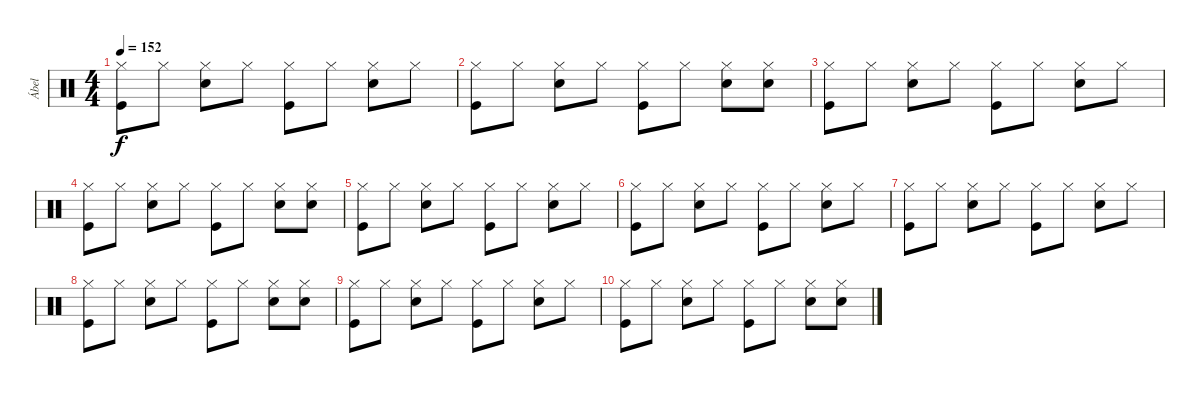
\track ("Ábel" "Ábel") {instrument percussion}
\staff {score}
\articulation defaults
\ts (4 4)
\tempo 152
\clef neutral
\ks c
("Hi-Hat (closed)" "Kick (hit)").8{dy f} "Hi-Hat (closed)".8 ("Hi-Hat (closed)" "Snare (hit) 2").8 "Hi-Hat (closed)".8 ("Hi-Hat (closed)" "Kick (hit)").8 "Hi-Hat (closed)".8 ("Hi-Hat (closed)" "Snare (hit) 2").8 "Hi-Hat (closed)".8 |
("Hi-Hat (closed)" "Kick (hit)").8 "Hi-Hat (closed)".8 ("Hi-Hat (closed)" "Snare (hit) 2").8 "Hi-Hat (closed)".8 ("Hi-Hat (closed)" "Kick (hit)").8 "Hi-Hat (closed)".8 ("Hi-Hat (closed)" "Snare (hit) 2").8 ("Hi-Hat (closed)" "Snare (hit) 2").8 |
("Hi-Hat (closed)" "Kick (hit)").8 "Hi-Hat (closed)".8 ("Hi-Hat (closed)" "Snare (hit) 2").8 "Hi-Hat (closed)".8 ("Hi-Hat (closed)" "Kick (hit)").8 "Hi-Hat (closed)".8 ("Hi-Hat (closed)" "Snare (hit) 2").8 "Hi-Hat (closed)".8 |
("Hi-Hat (closed)" "Kick (hit)").8 "Hi-Hat (closed)".8 ("Hi-Hat (closed)" "Snare (hit) 2").8 "Hi-Hat (closed)".8 ("Hi-Hat (closed)" "Kick (hit)").8 "Hi-Hat (closed)".8 ("Hi-Hat (closed)" "Snare (hit) 2").8 ("Hi-Hat (closed)" "Snare (hit) 2").8 |
("Hi-Hat (closed)" "Kick (hit)").8 "Hi-Hat (closed)".8 ("Hi-Hat (closed)" "Snare (hit) 2").8 "Hi-Hat (closed)".8 ("Hi-Hat (closed)" "Kick (hit)").8 "Hi-Hat (closed)".8 ("Hi-Hat (closed)" "Snare (hit) 2").8 "Hi-Hat (closed)".8 |
("Hi-Hat (closed)" "Kick (hit)").8 "Hi-Hat (closed)".8 ("Hi-Hat (closed)" "Snare (hit) 2").8 "Hi-Hat (closed)".8 ("Hi-Hat (closed)" "Kick (hit)").8 "Hi-Hat (closed)".8 ("Hi-Hat (closed)" "Snare (hit) 2").8 "Hi-Hat (closed)".8 |
("Hi-Hat (closed)" "Kick (hit)").8 "Hi-Hat (closed)".8 ("Hi-Hat (closed)" "Snare (hit) 2").8 "Hi-Hat (closed)".8 ("Hi-Hat (closed)" "Kick (hit)").8 "Hi-Hat (closed)".8 ("Hi-Hat (closed)" "Snare (hit) 2").8 "Hi-Hat (closed)".8 |
("Hi-Hat (closed)" "Kick (hit)").8 "Hi-Hat (closed)".8 ("Hi-Hat (closed)" "Snare (hit) 2").8 "Hi-Hat (closed)".8 ("Hi-Hat (closed)" "Kick (hit)").8 "Hi-Hat (closed)".8 ("Hi-Hat (closed)" "Snare (hit) 2").8 ("Hi-Hat (closed)" "Snare (hit) 2").8 |
("Hi-Hat (closed)" "Kick (hit)").8 "Hi-Hat (closed)".8 ("Hi-Hat (closed)" "Snare (hit) 2").8 "Hi-Hat (closed)".8 ("Hi-Hat (closed)" "Kick (hit)").8 "Hi-Hat (closed)".8 ("Hi-Hat (closed)" "Snare (hit) 2").8 "Hi-Hat (closed)".8 |
("Hi-Hat (closed)" "Kick (hit)").8 "Hi-Hat (closed)".8 ("Hi-Hat (closed)" "Snare (hit) 2").8 "Hi-Hat (closed)".8 ("Hi-Hat (closed)" "Kick (hit)").8 "Hi-Hat (closed)".8 ("Hi-Hat (closed)" "Snare (hit) 2").8 ("Hi-Hat (closed)" "Snare (hit) 2").8
